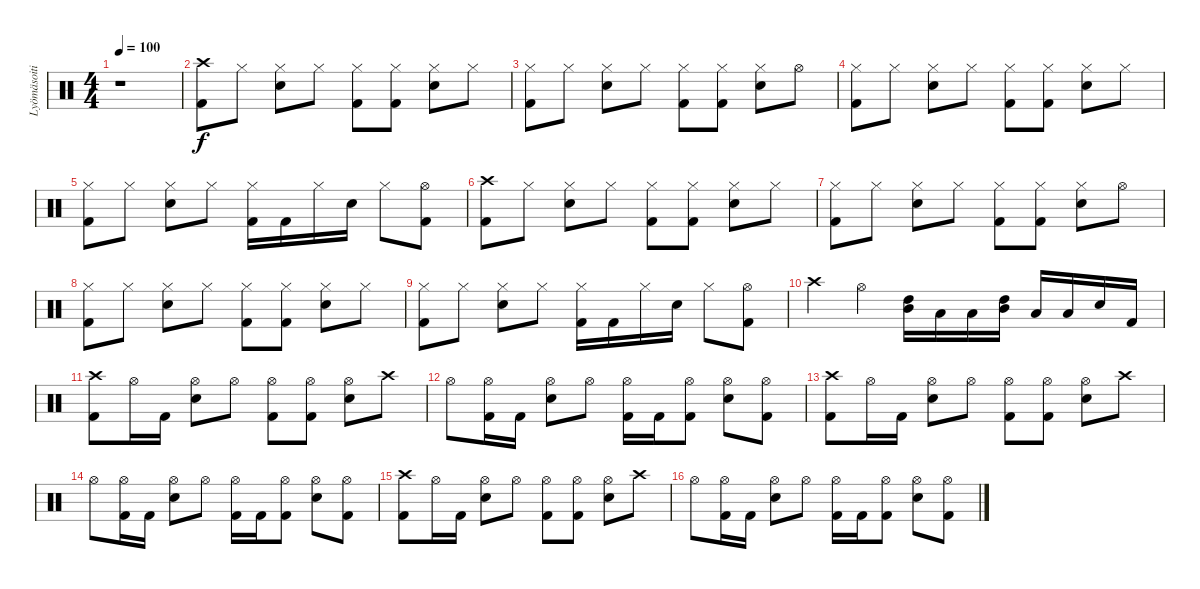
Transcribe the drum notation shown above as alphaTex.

\track ("Lyömäsoitin" "Lyömäsoiti") {instrument percussion}
\staff {score}
\articulation defaults
\ts (4 4)
\tempo 100
\clef neutral
\ks c
r.1{dy f} |
("Crash high (hit)" "Kick (hit) 2").8 "Hi-Hat (closed)".8 ("Hi-Hat (closed)" "Snare (hit) 2").8 "Hi-Hat (closed)".8 ("Hi-Hat (closed)" "Kick (hit) 2").8 ("Hi-Hat (closed)" "Kick (hit) 2").8 ("Hi-Hat (closed)" "Snare (hit) 2").8 "Hi-Hat (closed)".8 |
("Hi-Hat (closed)" "Kick (hit) 2").8 "Hi-Hat (closed)".8 ("Hi-Hat (closed)" "Snare (hit) 2").8 "Hi-Hat (closed)".8 ("Hi-Hat (closed)" "Kick (hit) 2").8 ("Hi-Hat (closed)" "Kick (hit) 2").8 ("Hi-Hat (closed)" "Snare (hit) 2").8 "Hi-Hat (open)".8 |
("Hi-Hat (closed)" "Kick (hit) 2").8 "Hi-Hat (closed)".8 ("Hi-Hat (closed)" "Snare (hit) 2").8 "Hi-Hat (closed)".8 ("Hi-Hat (closed)" "Kick (hit) 2").8 ("Hi-Hat (closed)" "Kick (hit) 2").8 ("Hi-Hat (closed)" "Snare (hit) 2").8 "Hi-Hat (closed)".8 |
("Hi-Hat (closed)" "Kick (hit) 2").8 "Hi-Hat (closed)".8 ("Hi-Hat (closed)" "Snare (hit) 2").8 "Hi-Hat (closed)".8 ("Hi-Hat (closed)" "Kick (hit) 2").16 "Kick (hit) 2".16 "Hi-Hat (closed)".16 "Snare (hit) 2".16 "Hi-Hat (closed)".8 ("Hi-Hat (open)" "Kick (hit) 2").8 |
("Crash high (hit)" "Kick (hit) 2").8 "Hi-Hat (closed)".8 ("Hi-Hat (closed)" "Snare (hit) 2").8 "Hi-Hat (closed)".8 ("Hi-Hat (closed)" "Kick (hit) 2").8 ("Hi-Hat (closed)" "Kick (hit) 2").8 ("Hi-Hat (closed)" "Snare (hit) 2").8 "Hi-Hat (closed)".8 |
("Hi-Hat (closed)" "Kick (hit) 2").8 "Hi-Hat (closed)".8 ("Hi-Hat (closed)" "Snare (hit) 2").8 "Hi-Hat (closed)".8 ("Hi-Hat (closed)" "Kick (hit) 2").8 ("Hi-Hat (closed)" "Kick (hit) 2").8 ("Hi-Hat (closed)" "Snare (hit) 2").8 "Hi-Hat (open)".8 |
("Hi-Hat (closed)" "Kick (hit) 2").8 "Hi-Hat (closed)".8 ("Hi-Hat (closed)" "Snare (hit) 2").8 "Hi-Hat (closed)".8 ("Hi-Hat (closed)" "Kick (hit) 2").8 ("Hi-Hat (closed)" "Kick (hit) 2").8 ("Hi-Hat (closed)" "Snare (hit) 2").8 "Hi-Hat (closed)".8 |
("Hi-Hat (closed)" "Kick (hit) 2").8 "Hi-Hat (closed)".8 ("Hi-Hat (closed)" "Snare (hit) 2").8 "Hi-Hat (closed)".8 ("Hi-Hat (closed)" "Kick (hit) 2").16 "Kick (hit) 2".16 "Hi-Hat (closed)".16 "Snare (hit) 2".16 "Hi-Hat (closed)".8 ("Hi-Hat (open)" "Kick (hit) 2").8 |
"Crash high (hit)".4 "Hi-Hat (open)".4 ("High Tom (hit)" "Mid Tom (hit)").16 "Low Tom (hit)".16 "Low Tom (hit)".16 ("High Tom (hit)" "Mid Tom (hit)").16 "Low Tom (hit)".16 "Low Tom (hit)".16 "Snare (hit) 2".16 "Kick (hit) 2".16 |
("Crash high (hit)" "Kick (hit) 2").8 "Hi-Hat (open)".16 "Kick (hit) 2".16 ("Hi-Hat (open)" "Snare (hit) 2").8 "Hi-Hat (open)".8 ("Hi-Hat (open)" "Kick (hit) 2").8 ("Hi-Hat (open)" "Kick (hit) 2").8 ("Hi-Hat (open)" "Snare (hit) 2").8 "Crash high (hit)".8 |
"Hi-Hat (open)".8 ("Hi-Hat (open)" "Kick (hit) 2").16 "Kick (hit) 2".16 ("Hi-Hat (open)" "Snare (hit) 2").8 "Hi-Hat (open)".8 ("Hi-Hat (open)" "Kick (hit) 2").16 "Kick (hit) 2".16 ("Hi-Hat (open)" "Kick (hit) 2").8 ("Hi-Hat (open)" "Snare (hit) 2").8 ("Hi-Hat (open)" "Kick (hit) 2").8 |
("Crash high (hit)" "Kick (hit) 2").8 "Hi-Hat (open)".16 "Kick (hit) 2".16 ("Hi-Hat (open)" "Snare (hit) 2").8 "Hi-Hat (open)".8 ("Hi-Hat (open)" "Kick (hit) 2").8 ("Hi-Hat (open)" "Kick (hit) 2").8 ("Hi-Hat (open)" "Snare (hit) 2").8 "Crash high (hit)".8 |
"Hi-Hat (open)".8 ("Hi-Hat (open)" "Kick (hit) 2").16 "Kick (hit) 2".16 ("Hi-Hat (open)" "Snare (hit) 2").8 "Hi-Hat (open)".8 ("Hi-Hat (open)" "Kick (hit) 2").16 "Kick (hit) 2".16 ("Hi-Hat (open)" "Kick (hit) 2").8 ("Hi-Hat (open)" "Snare (hit) 2").8 ("Hi-Hat (open)" "Kick (hit) 2").8 |
("Crash high (hit)" "Kick (hit) 2").8 "Hi-Hat (open)".16 "Kick (hit) 2".16 ("Hi-Hat (open)" "Snare (hit) 2").8 "Hi-Hat (open)".8 ("Hi-Hat (open)" "Kick (hit) 2").8 ("Hi-Hat (open)" "Kick (hit) 2").8 ("Hi-Hat (open)" "Snare (hit) 2").8 "Crash high (hit)".8 |
"Hi-Hat (open)".8 ("Hi-Hat (open)" "Kick (hit) 2").16 "Kick (hit) 2".16 ("Hi-Hat (open)" "Snare (hit) 2").8 "Hi-Hat (open)".8 ("Hi-Hat (open)" "Kick (hit) 2").16 "Kick (hit) 2".16 ("Hi-Hat (open)" "Kick (hit) 2").8 ("Hi-Hat (open)" "Snare (hit) 2").8 ("Hi-Hat (open)" "Kick (hit) 2").8
